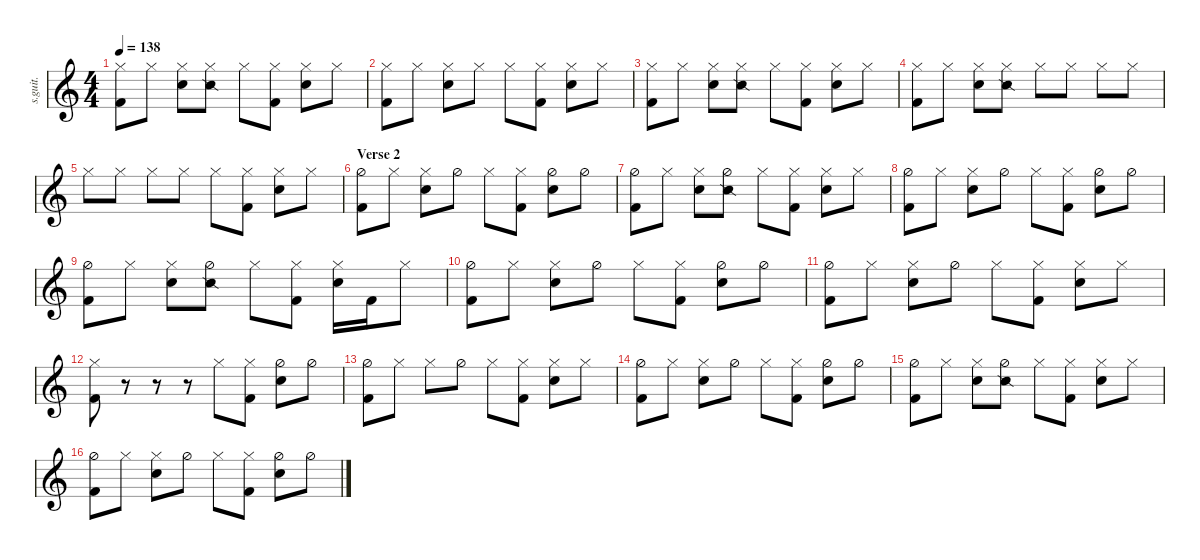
\defaultSystemsLayout 4
\hideDynamics
\bracketExtendMode nobrackets
\track ("Russel Hobbs | Drums" "s.guit.") {instrument percussion}
\staff {score}
\articulation defaults
\ts (4 4)
\tempo 138
\clef g2
\ks c
("Hi-Hat (closed)" "Kick (hit) 2").8{dy f} "Hi-Hat (closed)".8 ("Hi-Hat (closed)" "Snare (hit) 2").8 ("Hi-Hat (closed)" "Snare (side stick) 2").8 "Hi-Hat (closed)".8 ("Hi-Hat (closed)" "Kick (hit) 2").8 ("Hi-Hat (closed)" "Snare (hit) 2").8 "Hi-Hat (closed)".8 |
("Hi-Hat (closed)" "Kick (hit) 2").8 "Hi-Hat (closed)".8 ("Hi-Hat (closed)" "Snare (hit) 2").8 "Hi-Hat (closed)".8 "Hi-Hat (closed)".8 ("Hi-Hat (closed)" "Kick (hit) 2").8 ("Hi-Hat (closed)" "Snare (hit) 2").8 "Hi-Hat (closed)".8 |
("Hi-Hat (closed)" "Kick (hit) 2").8 "Hi-Hat (closed)".8 ("Hi-Hat (closed)" "Snare (hit) 2").8 ("Hi-Hat (closed)" "Snare (side stick) 2").8 "Hi-Hat (closed)".8 ("Hi-Hat (closed)" "Kick (hit) 2").8 ("Hi-Hat (closed)" "Snare (hit) 2").8 "Hi-Hat (closed)".8 |
("Hi-Hat (closed)" "Kick (hit) 2").8 "Hi-Hat (closed)".8 ("Hi-Hat (closed)" "Snare (hit) 2").8 ("Hi-Hat (closed)" "Snare (side stick) 2").8 "Hi-Hat (closed)".8 "Hi-Hat (closed)".8 "Hi-Hat (closed)".8 "Hi-Hat (closed)".8 |
"Hi-Hat (closed)".8 "Hi-Hat (closed)".8 "Hi-Hat (closed)".8 "Hi-Hat (closed)".8 "Hi-Hat (closed)".8 ("Hi-Hat (closed)" "Kick (hit) 2").8 ("Hi-Hat (closed)" "Snare (hit) 2").8 "Hi-Hat (closed)".8 |
\section ("" "Verse 2")
("Hi-Hat (half)" "Kick (hit) 2").8 "Hi-Hat (closed)".8 ("Hi-Hat (closed)" "Snare (hit) 2").8 "Hi-Hat (half)".8 "Hi-Hat (closed)".8 ("Hi-Hat (closed)" "Kick (hit) 2").8 ("Hi-Hat (half)" "Snare (hit) 2").8 "Hi-Hat (half)".8 |
("Hi-Hat (half)" "Kick (hit) 2").8 "Hi-Hat (closed)".8 ("Hi-Hat (closed)" "Snare (hit) 2").8 ("Hi-Hat (half)" "Snare (side stick) 2").8 "Hi-Hat (closed)".8 ("Hi-Hat (closed)" "Kick (hit) 2").8 ("Hi-Hat (closed)" "Snare (hit) 2").8 "Hi-Hat (closed)".8 |
("Hi-Hat (half)" "Kick (hit) 2").8 "Hi-Hat (closed)".8 ("Hi-Hat (closed)" "Snare (hit) 2").8 "Hi-Hat (half)".8 "Hi-Hat (closed)".8 ("Hi-Hat (closed)" "Kick (hit) 2").8 ("Hi-Hat (half)" "Snare (hit) 2").8 "Hi-Hat (half)".8 |
("Hi-Hat (half)" "Kick (hit) 2").8 "Hi-Hat (closed)".8 ("Hi-Hat (closed)" "Snare (hit) 2").8 ("Hi-Hat (half)" "Snare (side stick) 2").8 "Hi-Hat (closed)".8 ("Hi-Hat (closed)" "Kick (hit) 2").8 ("Hi-Hat (closed)" "Snare (hit) 2").16 "Kick (hit) 2".16{dy fff} "Hi-Hat (closed)".8{dy f} |
("Hi-Hat (half)" "Kick (hit) 2").8 "Hi-Hat (closed)".8 ("Hi-Hat (closed)" "Snare (hit) 2").8 "Hi-Hat (half)".8 "Hi-Hat (closed)".8 ("Hi-Hat (closed)" "Kick (hit) 2").8 ("Hi-Hat (half)" "Snare (hit) 2").8 "Hi-Hat (half)".8 |
("Hi-Hat (half)" "Kick (hit) 2").8 "Hi-Hat (closed)".8 ("Hi-Hat (closed)" "Snare (hit) 2").8 "Hi-Hat (half)".8 "Hi-Hat (closed)".8 ("Hi-Hat (closed)" "Kick (hit) 2").8 ("Hi-Hat (closed)" "Snare (hit) 2").8 "Hi-Hat (closed)".8 |
("Hi-Hat (closed)" "Kick (hit) 2").8 r.8 r.8 r.8 "Hi-Hat (closed)".8 ("Hi-Hat (closed)" "Kick (hit) 2").8 ("Hi-Hat (half)" "Snare (hit) 2").8 "Hi-Hat (half)".8 |
("Hi-Hat (half)" "Kick (hit) 2").8 "Hi-Hat (closed)".8 "Hi-Hat (closed)".8 "Hi-Hat (half)".8 "Hi-Hat (closed)".8 ("Hi-Hat (closed)" "Kick (hit) 2").8 ("Hi-Hat (closed)" "Snare (hit) 2").8 "Hi-Hat (closed)".8 |
("Hi-Hat (half)" "Kick (hit) 2").8 "Hi-Hat (closed)".8 ("Hi-Hat (closed)" "Snare (hit) 2").8 "Hi-Hat (half)".8 "Hi-Hat (closed)".8 ("Hi-Hat (closed)" "Kick (hit) 2").8 ("Hi-Hat (half)" "Snare (hit) 2").8 "Hi-Hat (half)".8 |
("Hi-Hat (half)" "Kick (hit) 2").8 "Hi-Hat (closed)".8 ("Hi-Hat (closed)" "Snare (hit) 2").8 ("Hi-Hat (half)" "Snare (side stick) 2").8 "Hi-Hat (closed)".8 ("Hi-Hat (closed)" "Kick (hit) 2").8 ("Hi-Hat (closed)" "Snare (hit) 2").8 "Hi-Hat (closed)".8 |
("Hi-Hat (half)" "Kick (hit) 2").8 "Hi-Hat (closed)".8 ("Hi-Hat (closed)" "Snare (hit) 2").8 "Hi-Hat (half)".8 "Hi-Hat (closed)".8 ("Hi-Hat (closed)" "Kick (hit) 2").8 ("Hi-Hat (half)" "Snare (hit) 2").8 "Hi-Hat (half)".8
